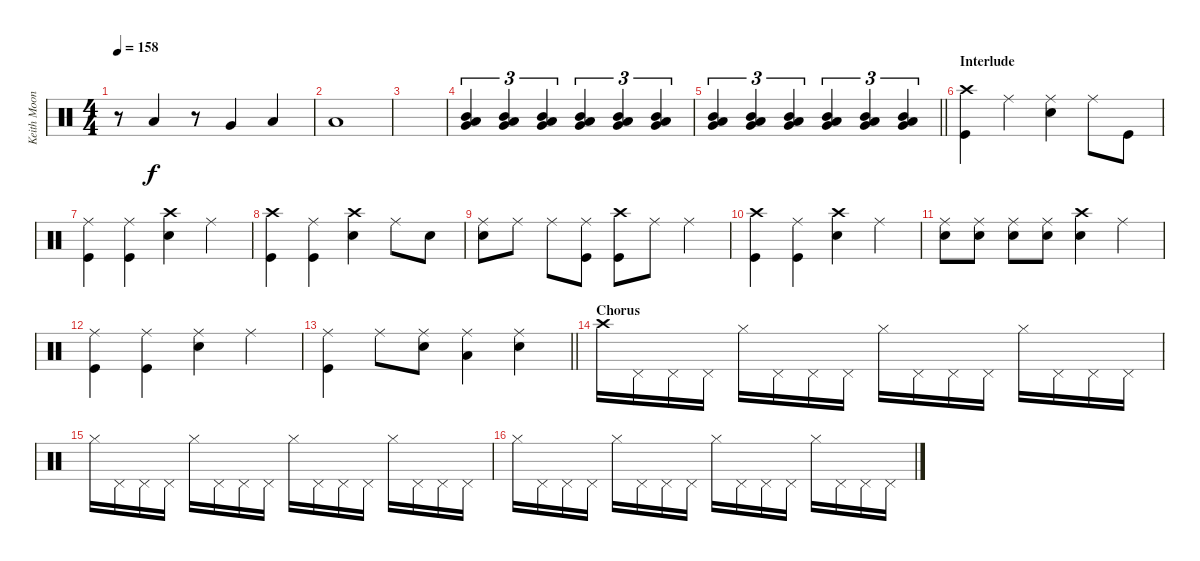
\track ("Keith Moon" "Keith Moon") {instrument percussion}
\staff {score}
\articulation defaults
\ts (4 4)
\tempo 158
\clef neutral
\ks c
r.8{dy f} "Low Tom (hit)".4 r.8 "Very Low Tom (hit)".4 "Low Tom (hit)".4 |
"Low Floor Tom (hit)".1 |
|
("Low Tom (hit)" "Very Low Tom (hit)" "Mid Tom (hit)").4{tu (3 2)} ("Very Low Tom (hit)" "Low Floor Tom (hit)" "Mid Tom (hit)").4{tu (3 2)} ("Low Tom (hit)" "Very Low Tom (hit)" "Mid Tom (hit)").4{tu (3 2)} ("Low Tom (hit)" "Very Low Tom (hit)" "Mid Tom (hit)").4{tu (3 2)} ("Very Low Tom (hit)" "Low Floor Tom (hit)" "Mid Tom (hit)").4{tu (3 2)} ("Low Tom (hit)" "Very Low Tom (hit)" "Mid Tom (hit)").4{tu (3 2)} |
\barLineRight lightlight
("Very Low Tom (hit)" "Low Floor Tom (hit)" "Mid Tom (hit)").4{tu (3 2)} ("Very Low Tom (hit)" "Low Floor Tom (hit)" "Mid Tom (hit)").4{tu (3 2)} ("Low Floor Tom (hit)" "Very Low Tom (hit)" "Mid Tom (hit)").4{tu (3 2)} ("Very Low Tom (hit)" "Low Floor Tom (hit)" "Mid Tom (hit)").4{tu (3 2)} ("Low Floor Tom (hit)" "Very Low Tom (hit)" "Mid Tom (hit)").4{tu (3 2)} ("Low Floor Tom (hit)" "Very Low Tom (hit)" "Mid Tom (hit)").4{tu (3 2)} |
\section ("" "Interlude")
("Crash high (hit)" "Kick (hit)").4 "Ride (middle)".4 ("Ride (middle)" "Snare (hit) 2").4 "Ride (middle)".8 "Kick (hit)".8 |
("Ride (middle)" "Kick (hit)").4 ("Ride (middle)" "Kick (hit)").4 ("Crash high (hit)" "Snare (hit) 2").4 "Ride (middle)".4 |
("Crash high (hit)" "Kick (hit)").4 ("Ride (middle)" "Kick (hit)").4 ("Crash high (hit)" "Snare (hit) 2").4 "Ride (middle)".8 "Snare (hit) 2".8 |
("Ride (middle)" "Snare (hit) 2").8 "Ride (middle)".8 "Ride (middle)".8 ("Ride (middle)" "Kick (hit)").8 ("Crash high (hit)" "Kick (hit)").8 "Ride (middle)".8 "Ride (middle)".4 |
("Crash high (hit)" "Kick (hit)").4 ("Ride (middle)" "Kick (hit)").4 ("Crash high (hit)" "Snare (hit) 2").4 "Ride (middle)".4 |
("Ride (middle)" "Snare (hit) 2").8 ("Ride (middle)" "Snare (hit) 2").8 ("Ride (middle)" "Snare (hit) 2").8 ("Ride (middle)" "Snare (hit) 2").8 ("Crash high (hit)" "Snare (hit) 2").4 "Ride (middle)".4 |
("Ride (middle)" "Kick (hit)").4 ("Ride (middle)" "Kick (hit)").4 ("Ride (middle)" "Snare (hit) 2").4 "Ride (middle)".4 |
\barLineRight lightlight
("Ride (middle)" "Kick (hit)").4 "Ride (middle)".8 ("Ride (middle)" "Snare (hit) 2").8 ("Ride (middle)" "Low Tom (hit)").4 ("Ride (middle)" "Snare (hit) 2").4 |
\section ("" "Chorus")
"Crash high (hit)".16 "Pedal Hi-Hat (hit)".16 "Pedal Hi-Hat (hit)".16 "Pedal Hi-Hat (hit)".16 "Hi-Hat (closed)".16 "Pedal Hi-Hat (hit)".16 "Pedal Hi-Hat (hit)".16 "Pedal Hi-Hat (hit)".16 "Hi-Hat (closed)".16 "Pedal Hi-Hat (hit)".16 "Pedal Hi-Hat (hit)".16 "Pedal Hi-Hat (hit)".16 "Hi-Hat (closed)".16 "Pedal Hi-Hat (hit)".16 "Pedal Hi-Hat (hit)".16 "Pedal Hi-Hat (hit)".16 |
"Hi-Hat (closed)".16 "Pedal Hi-Hat (hit)".16 "Pedal Hi-Hat (hit)".16 "Pedal Hi-Hat (hit)".16 "Hi-Hat (closed)".16 "Pedal Hi-Hat (hit)".16 "Pedal Hi-Hat (hit)".16 "Pedal Hi-Hat (hit)".16 "Hi-Hat (closed)".16 "Pedal Hi-Hat (hit)".16 "Pedal Hi-Hat (hit)".16 "Pedal Hi-Hat (hit)".16 "Hi-Hat (closed)".16 "Pedal Hi-Hat (hit)".16 "Pedal Hi-Hat (hit)".16 "Pedal Hi-Hat (hit)".16 |
"Hi-Hat (closed)".16 "Pedal Hi-Hat (hit)".16 "Pedal Hi-Hat (hit)".16 "Pedal Hi-Hat (hit)".16 "Hi-Hat (closed)".16 "Pedal Hi-Hat (hit)".16 "Pedal Hi-Hat (hit)".16 "Pedal Hi-Hat (hit)".16 "Hi-Hat (closed)".16 "Pedal Hi-Hat (hit)".16 "Pedal Hi-Hat (hit)".16 "Pedal Hi-Hat (hit)".16 "Hi-Hat (closed)".16 "Pedal Hi-Hat (hit)".16 "Pedal Hi-Hat (hit)".16 "Pedal Hi-Hat (hit)".16
